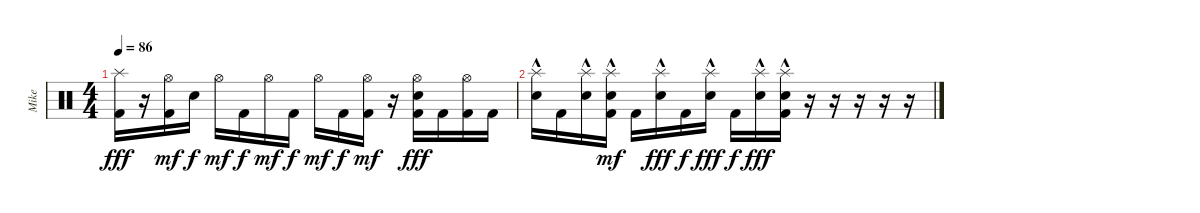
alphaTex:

\track ("Mike" "Mike") {instrument percussion}
\staff {score}
\articulation defaults
\ts (4 4)
\tempo 86
\clef neutral
\ks c
("Splash (hit)" "Kick (hit) 2").16{dy fff} r.16 ("Hi-Hat (open)" "Kick (hit) 2").16{dy mf} "Snare (hit) 2".16{dy f} "Hi-Hat (open)".16{dy mf} "Kick (hit) 2".16{dy f} "Hi-Hat (open)".16{dy mf} "Kick (hit) 2".16{dy f} "Hi-Hat (open)".16{dy mf} "Kick (hit) 2".16{dy f} ("Hi-Hat (open)" "Kick (hit) 2").16{dy mf} r.16 ("Hi-Hat (open)" "Snare (hit) 2" "Kick (hit) 2").16{dy fff} "Kick (hit) 2".16 ("Hi-Hat (open)" "Kick (hit) 2").16 "Kick (hit) 2".16 |
("Splash (hit)" "Snare (hit) 2"{hac}).16 "Kick (hit) 2".16 ("Splash (hit)" "Snare (hit) 2"{hac}).16 ("Splash (hit)" "Snare (hit) 2"{hac} "Kick (hit) 2").16{dy mf} "Kick (hit) 2".16 ("Splash (hit)" "Snare (hit) 2"{hac}).16{dy fff} "Kick (hit) 2".16{dy f} ("Splash (hit)" "Snare (hit) 2"{hac}).16{dy fff} "Kick (hit) 2".16{dy f} ("Splash (hit)" "Snare (hit) 2"{hac}).16{dy fff} ("Splash (hit)" "Snare (hit) 2"{hac} "Kick (hit) 2").16 r.16 r.16 r.16 r.16 r.16
